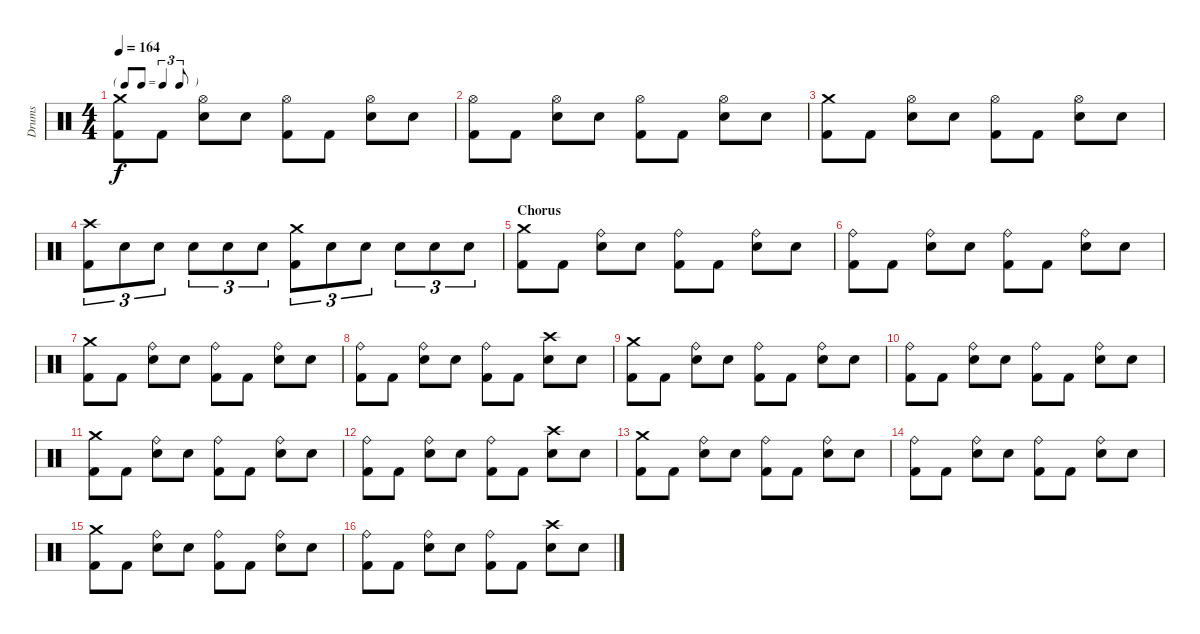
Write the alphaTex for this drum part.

\track ("Drums" "Drums") {instrument percussion}
\staff {score}
\articulation defaults
\ts (4 4)
\tf triplet8th
\tempo 164
\clef neutral
\ks c
("Crash medium (hit)" "Kick (hit) 2").8{dy f} "Kick (hit) 2".8 ("Hi-Hat (open)" "Electric Snare (hit)").8 "Electric Snare (hit)".8 ("Hi-Hat (open)" "Kick (hit) 2").8 "Kick (hit) 2".8 ("Hi-Hat (open)" "Electric Snare (hit)").8 "Electric Snare (hit)".8 |
("Hi-Hat (open)" "Kick (hit) 2").8 "Kick (hit) 2".8 ("Hi-Hat (open)" "Electric Snare (hit)").8 "Electric Snare (hit)".8 ("Hi-Hat (open)" "Kick (hit) 2").8 "Kick (hit) 2".8 ("Hi-Hat (open)" "Electric Snare (hit)").8 "Electric Snare (hit)".8 |
("Crash medium (hit)" "Kick (hit) 2").8 "Kick (hit) 2".8 ("Hi-Hat (open)" "Electric Snare (hit)").8 "Electric Snare (hit)".8 ("Hi-Hat (open)" "Kick (hit) 2").8 "Kick (hit) 2".8 ("Hi-Hat (open)" "Electric Snare (hit)").8 "Electric Snare (hit)".8 |
("Crash high (hit)" "Kick (hit) 2").8{tu (3 2)} "Electric Snare (hit)".8{tu (3 2)} "Electric Snare (hit)".8{tu (3 2)} "Electric Snare (hit)".8{tu (3 2)} "Electric Snare (hit)".8{tu (3 2)} "Electric Snare (hit)".8{tu (3 2)} ("Crash medium (hit)" "Kick (hit) 2").8{tu (3 2)} "Electric Snare (hit)".8{tu (3 2)} "Electric Snare (hit)".8{tu (3 2)} "Electric Snare (hit)".8{tu (3 2)} "Electric Snare (hit)".8{tu (3 2)} "Electric Snare (hit)".8{tu (3 2)} |
\section ("" "Chorus")
("Crash medium (hit)" "Kick (hit) 2").8 "Kick (hit) 2".8 ("Ride (bell)" "Electric Snare (hit)").8 "Electric Snare (hit)".8 ("Ride (bell)" "Kick (hit) 2").8 "Kick (hit) 2".8 ("Ride (bell)" "Electric Snare (hit)").8 "Electric Snare (hit)".8 |
("Ride (bell)" "Kick (hit) 2").8 "Kick (hit) 2".8 ("Ride (bell)" "Electric Snare (hit)").8 "Electric Snare (hit)".8 ("Ride (bell)" "Kick (hit) 2").8 "Kick (hit) 2".8 ("Ride (bell)" "Electric Snare (hit)").8 "Electric Snare (hit)".8 |
("Crash medium (hit)" "Kick (hit) 2").8 "Kick (hit) 2".8 ("Ride (bell)" "Electric Snare (hit)").8 "Electric Snare (hit)".8 ("Ride (bell)" "Kick (hit) 2").8 "Kick (hit) 2".8 ("Ride (bell)" "Electric Snare (hit)").8 "Electric Snare (hit)".8 |
("Ride (bell)" "Kick (hit) 2").8 "Kick (hit) 2".8 ("Ride (bell)" "Electric Snare (hit)").8 "Electric Snare (hit)".8 ("Ride (bell)" "Kick (hit) 2").8 "Kick (hit) 2".8 ("Crash high (hit)" "Electric Snare (hit)").8 "Electric Snare (hit)".8 |
("Crash medium (hit)" "Kick (hit) 2").8 "Kick (hit) 2".8 ("Ride (bell)" "Electric Snare (hit)").8 "Electric Snare (hit)".8 ("Ride (bell)" "Kick (hit) 2").8 "Kick (hit) 2".8 ("Ride (bell)" "Electric Snare (hit)").8 "Electric Snare (hit)".8 |
("Ride (bell)" "Kick (hit) 2").8 "Kick (hit) 2".8 ("Ride (bell)" "Electric Snare (hit)").8 "Electric Snare (hit)".8 ("Ride (bell)" "Kick (hit) 2").8 "Kick (hit) 2".8 ("Ride (bell)" "Electric Snare (hit)").8 "Electric Snare (hit)".8 |
("Crash medium (hit)" "Kick (hit) 2").8 "Kick (hit) 2".8 ("Ride (bell)" "Electric Snare (hit)").8 "Electric Snare (hit)".8 ("Ride (bell)" "Kick (hit) 2").8 "Kick (hit) 2".8 ("Ride (bell)" "Electric Snare (hit)").8 "Electric Snare (hit)".8 |
("Ride (bell)" "Kick (hit) 2").8 "Kick (hit) 2".8 ("Ride (bell)" "Electric Snare (hit)").8 "Electric Snare (hit)".8 ("Ride (bell)" "Kick (hit) 2").8 "Kick (hit) 2".8 ("Crash high (hit)" "Electric Snare (hit)").8 "Electric Snare (hit)".8 |
("Crash medium (hit)" "Kick (hit) 2").8 "Kick (hit) 2".8 ("Ride (bell)" "Electric Snare (hit)").8 "Electric Snare (hit)".8 ("Ride (bell)" "Kick (hit) 2").8 "Kick (hit) 2".8 ("Ride (bell)" "Electric Snare (hit)").8 "Electric Snare (hit)".8 |
("Ride (bell)" "Kick (hit) 2").8 "Kick (hit) 2".8 ("Ride (bell)" "Electric Snare (hit)").8 "Electric Snare (hit)".8 ("Ride (bell)" "Kick (hit) 2").8 "Kick (hit) 2".8 ("Ride (bell)" "Electric Snare (hit)").8 "Electric Snare (hit)".8 |
("Crash medium (hit)" "Kick (hit) 2").8 "Kick (hit) 2".8 ("Ride (bell)" "Electric Snare (hit)").8 "Electric Snare (hit)".8 ("Ride (bell)" "Kick (hit) 2").8 "Kick (hit) 2".8 ("Ride (bell)" "Electric Snare (hit)").8 "Electric Snare (hit)".8 |
("Ride (bell)" "Kick (hit) 2").8 "Kick (hit) 2".8 ("Ride (bell)" "Electric Snare (hit)").8 "Electric Snare (hit)".8 ("Ride (bell)" "Kick (hit) 2").8 "Kick (hit) 2".8 ("Crash high (hit)" "Electric Snare (hit)").8 "Electric Snare (hit)".8
